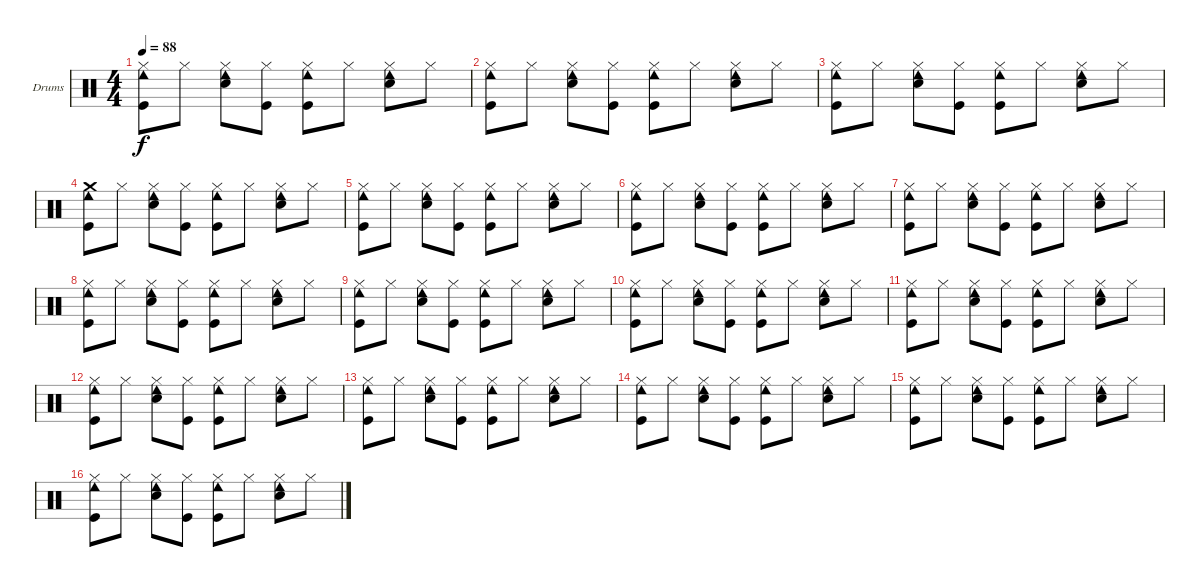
\bracketExtendMode groupsimilarinstruments
\firstSystemTrackNameOrientation horizontal
\otherSystemsTrackNameOrientation horizontal
\track ("Drumkit" "Drums") {instrument percussion}
\staff {score}
\articulation defaults
\ts (4 4)
\tempo 88
\clef neutral
\ks c
("Kick (hit)" "Hi-Hat (closed)" "Cowbell low (hit)").8{dy f} "Hi-Hat (closed)".8 ("Snare (hit) 2" "Hi-Hat (closed)" "Cowbell low (hit)").8 ("Kick (hit)" "Hi-Hat (closed)").8 ("Kick (hit)" "Hi-Hat (closed)" "Cowbell low (hit)").8 "Hi-Hat (closed)".8 ("Snare (hit) 2" "Hi-Hat (closed)" "Cowbell low (hit)").8 "Hi-Hat (closed)".8 |
("Kick (hit)" "Hi-Hat (closed)" "Cowbell low (hit)").8 "Hi-Hat (closed)".8 ("Snare (hit) 2" "Hi-Hat (closed)" "Cowbell low (hit)").8 ("Kick (hit)" "Hi-Hat (closed)").8 ("Kick (hit)" "Hi-Hat (closed)" "Cowbell low (hit)").8 "Hi-Hat (closed)".8 ("Snare (hit) 2" "Hi-Hat (closed)" "Cowbell low (hit)").8 "Hi-Hat (closed)".8 |
("Kick (hit)" "Hi-Hat (closed)" "Cowbell low (hit)").8 "Hi-Hat (closed)".8 ("Snare (hit) 2" "Hi-Hat (closed)" "Cowbell low (hit)").8 ("Kick (hit)" "Hi-Hat (closed)").8 ("Kick (hit)" "Hi-Hat (closed)" "Cowbell low (hit)").8 "Hi-Hat (closed)".8 ("Snare (hit) 2" "Hi-Hat (closed)" "Cowbell low (hit)").8 "Hi-Hat (closed)".8 |
("Kick (hit)" "Cowbell low (hit)" "Crash medium (hit)").8 "Hi-Hat (closed)".8 ("Snare (hit) 2" "Hi-Hat (closed)" "Cowbell low (hit)").8 ("Kick (hit)" "Hi-Hat (closed)").8 ("Kick (hit)" "Cowbell low (hit)" "Hi-Hat (closed)").8 "Hi-Hat (closed)".8 ("Snare (hit) 2" "Hi-Hat (closed)" "Cowbell low (hit)").8 "Hi-Hat (closed)".8 |
("Kick (hit)" "Hi-Hat (closed)" "Cowbell low (hit)").8 "Hi-Hat (closed)".8 ("Snare (hit) 2" "Hi-Hat (closed)" "Cowbell low (hit)").8 ("Kick (hit)" "Hi-Hat (closed)").8 ("Kick (hit)" "Hi-Hat (closed)" "Cowbell low (hit)").8 "Hi-Hat (closed)".8 ("Snare (hit) 2" "Hi-Hat (closed)" "Cowbell low (hit)").8 "Hi-Hat (closed)".8 |
("Kick (hit)" "Hi-Hat (closed)" "Cowbell low (hit)").8 "Hi-Hat (closed)".8 ("Snare (hit) 2" "Hi-Hat (closed)" "Cowbell low (hit)").8 ("Kick (hit)" "Hi-Hat (closed)").8 ("Kick (hit)" "Hi-Hat (closed)" "Cowbell low (hit)").8 "Hi-Hat (closed)".8 ("Snare (hit) 2" "Hi-Hat (closed)" "Cowbell low (hit)").8 "Hi-Hat (closed)".8 |
("Kick (hit)" "Hi-Hat (closed)" "Cowbell low (hit)").8 "Hi-Hat (closed)".8 ("Snare (hit) 2" "Hi-Hat (closed)" "Cowbell low (hit)").8 ("Kick (hit)" "Hi-Hat (closed)").8 ("Kick (hit)" "Hi-Hat (closed)" "Cowbell low (hit)").8 "Hi-Hat (closed)".8 ("Snare (hit) 2" "Hi-Hat (closed)" "Cowbell low (hit)").8 "Hi-Hat (closed)".8 |
("Kick (hit)" "Hi-Hat (closed)" "Cowbell low (hit)").8 "Hi-Hat (closed)".8 ("Snare (hit) 2" "Hi-Hat (closed)" "Cowbell low (hit)").8 ("Kick (hit)" "Hi-Hat (closed)").8 ("Kick (hit)" "Hi-Hat (closed)" "Cowbell low (hit)").8 "Hi-Hat (closed)".8 ("Snare (hit) 2" "Hi-Hat (closed)" "Cowbell low (hit)").8 "Hi-Hat (closed)".8 |
("Kick (hit)" "Hi-Hat (closed)" "Cowbell low (hit)").8 "Hi-Hat (closed)".8 ("Snare (hit) 2" "Hi-Hat (closed)" "Cowbell low (hit)").8 ("Kick (hit)" "Hi-Hat (closed)").8 ("Kick (hit)" "Hi-Hat (closed)" "Cowbell low (hit)").8 "Hi-Hat (closed)".8 ("Snare (hit) 2" "Hi-Hat (closed)" "Cowbell low (hit)").8 "Hi-Hat (closed)".8 |
("Kick (hit)" "Hi-Hat (closed)" "Cowbell low (hit)").8 "Hi-Hat (closed)".8 ("Snare (hit) 2" "Hi-Hat (closed)" "Cowbell low (hit)").8 ("Kick (hit)" "Hi-Hat (closed)").8 ("Kick (hit)" "Hi-Hat (closed)" "Cowbell low (hit)").8 "Hi-Hat (closed)".8 ("Snare (hit) 2" "Hi-Hat (closed)" "Cowbell low (hit)").8 "Hi-Hat (closed)".8 |
("Kick (hit)" "Hi-Hat (closed)" "Cowbell low (hit)").8 "Hi-Hat (closed)".8 ("Snare (hit) 2" "Hi-Hat (closed)" "Cowbell low (hit)").8 ("Kick (hit)" "Hi-Hat (closed)").8 ("Kick (hit)" "Hi-Hat (closed)" "Cowbell low (hit)").8 "Hi-Hat (closed)".8 ("Snare (hit) 2" "Hi-Hat (closed)" "Cowbell low (hit)").8 "Hi-Hat (closed)".8 |
("Kick (hit)" "Hi-Hat (closed)" "Cowbell low (hit)").8 "Hi-Hat (closed)".8 ("Snare (hit) 2" "Hi-Hat (closed)" "Cowbell low (hit)").8 ("Kick (hit)" "Hi-Hat (closed)").8 ("Kick (hit)" "Hi-Hat (closed)" "Cowbell low (hit)").8 "Hi-Hat (closed)".8 ("Snare (hit) 2" "Hi-Hat (closed)" "Cowbell low (hit)").8 "Hi-Hat (closed)".8 |
("Kick (hit)" "Hi-Hat (closed)" "Cowbell low (hit)").8 "Hi-Hat (closed)".8 ("Snare (hit) 2" "Hi-Hat (closed)" "Cowbell low (hit)").8 ("Kick (hit)" "Hi-Hat (closed)").8 ("Kick (hit)" "Hi-Hat (closed)" "Cowbell low (hit)").8 "Hi-Hat (closed)".8 ("Snare (hit) 2" "Hi-Hat (closed)" "Cowbell low (hit)").8 "Hi-Hat (closed)".8 |
("Kick (hit)" "Hi-Hat (closed)" "Cowbell low (hit)").8 "Hi-Hat (closed)".8 ("Snare (hit) 2" "Hi-Hat (closed)" "Cowbell low (hit)").8 ("Kick (hit)" "Hi-Hat (closed)").8 ("Kick (hit)" "Hi-Hat (closed)" "Cowbell low (hit)").8 "Hi-Hat (closed)".8 ("Snare (hit) 2" "Hi-Hat (closed)" "Cowbell low (hit)").8 "Hi-Hat (closed)".8 |
("Kick (hit)" "Hi-Hat (closed)" "Cowbell low (hit)").8 "Hi-Hat (closed)".8 ("Snare (hit) 2" "Hi-Hat (closed)" "Cowbell low (hit)").8 ("Kick (hit)" "Hi-Hat (closed)").8 ("Kick (hit)" "Hi-Hat (closed)" "Cowbell low (hit)").8 "Hi-Hat (closed)".8 ("Snare (hit) 2" "Hi-Hat (closed)" "Cowbell low (hit)").8 "Hi-Hat (closed)".8 |
("Kick (hit)" "Hi-Hat (closed)" "Cowbell low (hit)").8 "Hi-Hat (closed)".8 ("Snare (hit) 2" "Hi-Hat (closed)" "Cowbell low (hit)").8 ("Kick (hit)" "Hi-Hat (closed)").8 ("Kick (hit)" "Hi-Hat (closed)" "Cowbell low (hit)").8 "Hi-Hat (closed)".8 ("Snare (hit) 2" "Hi-Hat (closed)" "Cowbell low (hit)").8 "Hi-Hat (closed)".8
